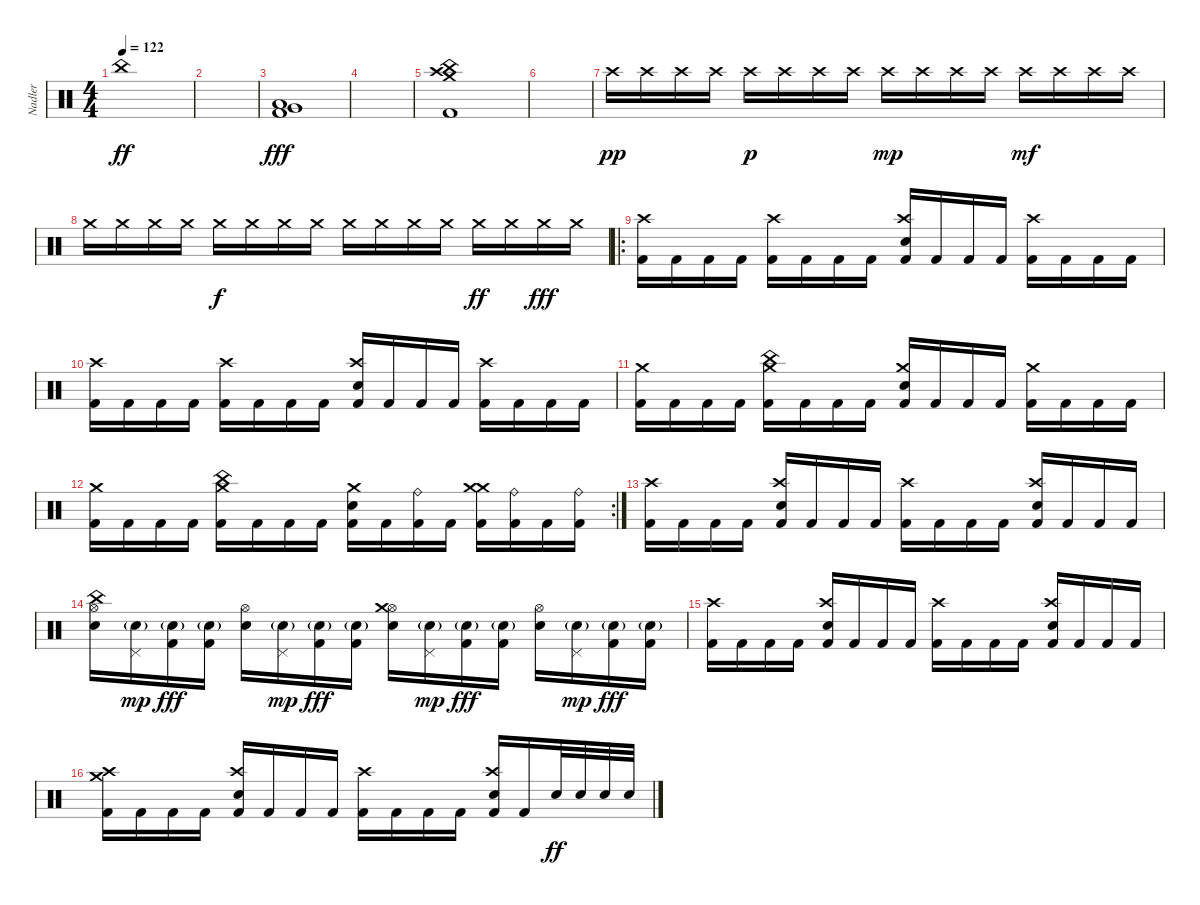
\track ("Nadler" "Nadler") {mute instrument percussion}
\staff {score}
\articulation defaults
\ts (4 4)
\tempo 122
\clef neutral
\ks c "China (hit)".1{dy ff}
|
|
("Very Low Tom (hit)" "Low Floor Tom (hit)" "Kick (hit) 2").1{dy fff} |
|
("Crash medium (hit)" "Crash high (hit)" "China (hit)" "Kick (hit) 2").1 |
|
"Crash high (hit)".16{dy pp} "Crash high (hit)".16 "Crash high (hit)".16 "Crash high (hit)".16 "Crash high (hit)".16{dy p} "Crash high (hit)".16 "Crash high (hit)".16 "Crash high (hit)".16 "Crash high (hit)".16{dy mp} "Crash high (hit)".16 "Crash high (hit)".16 "Crash high (hit)".16 "Crash high (hit)".16{dy mf} "Crash high (hit)".16 "Crash high (hit)".16 "Crash high (hit)".16 |
"Crash medium (hit)".16 "Crash medium (hit)".16 "Crash medium (hit)".16 "Crash medium (hit)".16 "Crash medium (hit)".16{dy f} "Crash medium (hit)".16 "Crash medium (hit)".16 "Crash medium (hit)".16 "Crash medium (hit)".16 "Crash medium (hit)".16 "Crash medium (hit)".16 "Crash medium (hit)".16 "Crash medium (hit)".16{dy ff} "Crash medium (hit)".16 "Crash medium (hit)".16{dy fff} "Crash medium (hit)".16 |
\ro
("Crash high (hit)" "Kick (hit) 2").16 "Kick (hit) 2".16 "Kick (hit) 2".16 "Kick (hit) 2".16 ("Crash high (hit)" "Kick (hit) 2").16 "Kick (hit) 2".16 "Kick (hit) 2".16 "Kick (hit) 2".16 ("Crash high (hit)" "Electric Snare (hit)" "Kick (hit) 2").16 "Kick (hit) 2".16 "Kick (hit) 2".16 "Kick (hit) 2".16 ("Crash high (hit)" "Kick (hit) 2").16 "Kick (hit) 2".16 "Kick (hit) 2".16 "Kick (hit) 2".16 |
("Crash high (hit)" "Kick (hit) 2").16 "Kick (hit) 2".16 "Kick (hit) 2".16 "Kick (hit) 2".16 ("Crash high (hit)" "Kick (hit) 2").16 "Kick (hit) 2".16 "Kick (hit) 2".16 "Kick (hit) 2".16 ("Crash high (hit)" "Electric Snare (hit)" "Kick (hit) 2").16 "Kick (hit) 2".16 "Kick (hit) 2".16 "Kick (hit) 2".16 ("Crash high (hit)" "Kick (hit) 2").16 "Kick (hit) 2".16 "Kick (hit) 2".16 "Kick (hit) 2".16 |
("Crash medium (hit)" "Kick (hit) 2").16 "Kick (hit) 2".16 "Kick (hit) 2".16 "Kick (hit) 2".16 ("Crash medium (hit)" "China (hit)" "Kick (hit) 2").16 "Kick (hit) 2".16 "Kick (hit) 2".16 "Kick (hit) 2".16 ("Crash medium (hit)" "Electric Snare (hit)" "Kick (hit) 2").16 "Kick (hit) 2".16 "Kick (hit) 2".16 "Kick (hit) 2".16 ("Crash medium (hit)" "Kick (hit) 2").16 "Kick (hit) 2".16 "Kick (hit) 2".16 "Kick (hit) 2".16 |
\rc 2
("Crash medium (hit)" "Kick (hit) 2").16 "Kick (hit) 2".16 "Kick (hit) 2".16 "Kick (hit) 2".16 ("Crash medium (hit)" "China (hit)" "Kick (hit) 2").16 "Kick (hit) 2".16 "Kick (hit) 2".16 "Kick (hit) 2".16 ("Crash medium (hit)" "Electric Snare (hit)" "Kick (hit) 2").16 "Kick (hit) 2".16 ("Ride (bell)" "Kick (hit) 2").16 "Kick (hit) 2".16 ("Crash medium (hit)" "Crash medium (hit)" "Kick (hit) 2").16 ("Ride (bell)" "Kick (hit) 2").16 "Kick (hit) 2".16 ("Ride (bell)" "Kick (hit) 2").16 |
("Crash high (hit)" "Kick (hit) 2").16 "Kick (hit) 2".16 "Kick (hit) 2".16 "Kick (hit) 2".16 ("Crash high (hit)" "Electric Snare (hit)" "Kick (hit) 2").16 "Kick (hit) 2".16 "Kick (hit) 2".16 "Kick (hit) 2".16 ("Crash high (hit)" "Kick (hit) 2").16 "Kick (hit) 2".16 "Kick (hit) 2".16 "Kick (hit) 2".16 ("Crash high (hit)" "Electric Snare (hit)" "Kick (hit) 2").16 "Kick (hit) 2".16 "Kick (hit) 2".16 "Kick (hit) 2".16 |
("Hi-Hat (open)" "China (hit)" "Electric Snare (hit)").16 ("Pedal Hi-Hat (hit)" "Electric Snare (hit)"{g}).16{dy mp} ("Electric Snare (hit)"{g} "Kick (hit) 2").16{dy fff} ("Electric Snare (hit)"{g} "Kick (hit) 2").16 ("Hi-Hat (open)" "Electric Snare (hit)").16 ("Pedal Hi-Hat (hit)" "Electric Snare (hit)"{g}).16{dy mp} ("Electric Snare (hit)"{g} "Kick (hit) 2").16{dy fff} ("Electric Snare (hit)"{g} "Kick (hit) 2").16 ("Hi-Hat (open)" "Crash medium (hit)" "Electric Snare (hit)").16 ("Pedal Hi-Hat (hit)" "Electric Snare (hit)"{g}).16{dy mp} ("Electric Snare (hit)"{g} "Kick (hit) 2").16{dy fff} ("Electric Snare (hit)"{g} "Kick (hit) 2").16 ("Hi-Hat (open)" "Electric Snare (hit)").16 ("Pedal Hi-Hat (hit)" "Electric Snare (hit)"{g}).16{dy mp} ("Electric Snare (hit)"{g} "Kick (hit) 2").16{dy fff} ("Electric Snare (hit)"{g} "Kick (hit) 2").16 |
("Crash high (hit)" "Kick (hit) 2").16 "Kick (hit) 2".16 "Kick (hit) 2".16 "Kick (hit) 2".16 ("Crash high (hit)" "Electric Snare (hit)" "Kick (hit) 2").16 "Kick (hit) 2".16 "Kick (hit) 2".16 "Kick (hit) 2".16 ("Crash high (hit)" "Kick (hit) 2").16 "Kick (hit) 2".16 "Kick (hit) 2".16 "Kick (hit) 2".16 ("Crash high (hit)" "Electric Snare (hit)" "Kick (hit) 2").16 "Kick (hit) 2".16 "Kick (hit) 2".16 "Kick (hit) 2".16 |
("Crash medium (hit)" "Crash high (hit)" "Kick (hit) 2").16 "Kick (hit) 2".16 "Kick (hit) 2".16 "Kick (hit) 2".16 ("Crash high (hit)" "Electric Snare (hit)" "Kick (hit) 2").16 "Kick (hit) 2".16 "Kick (hit) 2".16 "Kick (hit) 2".16 ("Crash high (hit)" "Kick (hit) 2").16 "Kick (hit) 2".16 "Kick (hit) 2".16 "Kick (hit) 2".16 ("Crash high (hit)" "Electric Snare (hit)" "Kick (hit) 2").16 "Kick (hit) 2".16 "Electric Snare (hit)".32{dy ff} "Electric Snare (hit)".32 "Electric Snare (hit)".32 "Electric Snare (hit)".32
